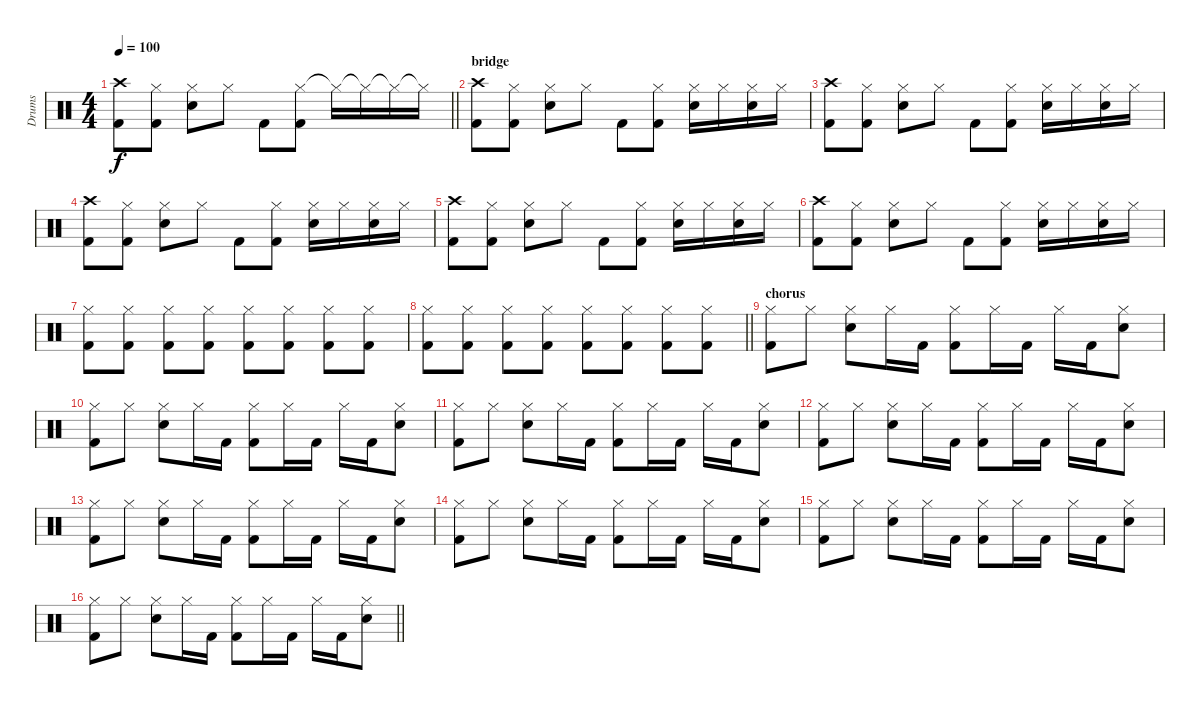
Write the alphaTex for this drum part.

\track ("Drums" "Drums") {instrument percussion}
\staff {score}
\articulation defaults
\ts (4 4)
\tempo 100
\clef neutral
\barLineRight lightlight
\ks c
("Crash high (hit)" "Kick (hit) 2").8{dy f} ("Hi-Hat (closed)" "Kick (hit) 2").8 ("Hi-Hat (closed)" "Snare (hit) 2").8 "Hi-Hat (closed)".8 "Kick (hit) 2".8 ("Hi-Hat (closed)" "Kick (hit) 2").8 "Hi-Hat (closed)"{t}.16 "Hi-Hat (closed)"{t}.16 "Hi-Hat (closed)"{t}.16 "Hi-Hat (closed)"{t}.16 |
\section ("" "bridge")
("Crash high (hit)" "Kick (hit) 2").8 ("Hi-Hat (closed)" "Kick (hit) 2").8 ("Hi-Hat (closed)" "Snare (hit) 2").8 "Hi-Hat (closed)".8 "Kick (hit) 2".8 ("Hi-Hat (closed)" "Kick (hit) 2").8 ("Hi-Hat (closed)" "Snare (hit) 2").16 "Hi-Hat (closed)".16 ("Hi-Hat (closed)" "Snare (hit) 2").16 "Hi-Hat (closed)".16 |
("Crash high (hit)" "Kick (hit) 2").8 ("Hi-Hat (closed)" "Kick (hit) 2").8 ("Hi-Hat (closed)" "Snare (hit) 2").8 "Hi-Hat (closed)".8 "Kick (hit) 2".8 ("Hi-Hat (closed)" "Kick (hit) 2").8 ("Hi-Hat (closed)" "Snare (hit) 2").16 "Hi-Hat (closed)".16 ("Hi-Hat (closed)" "Snare (hit) 2").16 "Hi-Hat (closed)".16 |
("Crash high (hit)" "Kick (hit) 2").8 ("Hi-Hat (closed)" "Kick (hit) 2").8 ("Hi-Hat (closed)" "Snare (hit) 2").8 "Hi-Hat (closed)".8 "Kick (hit) 2".8 ("Hi-Hat (closed)" "Kick (hit) 2").8 ("Hi-Hat (closed)" "Snare (hit) 2").16 "Hi-Hat (closed)".16 ("Hi-Hat (closed)" "Snare (hit) 2").16 "Hi-Hat (closed)".16 |
("Crash high (hit)" "Kick (hit) 2").8 ("Hi-Hat (closed)" "Kick (hit) 2").8 ("Hi-Hat (closed)" "Snare (hit) 2").8 "Hi-Hat (closed)".8 "Kick (hit) 2".8 ("Hi-Hat (closed)" "Kick (hit) 2").8 ("Hi-Hat (closed)" "Snare (hit) 2").16 "Hi-Hat (closed)".16 ("Hi-Hat (closed)" "Snare (hit) 2").16 "Hi-Hat (closed)".16 |
("Crash high (hit)" "Kick (hit) 2").8 ("Hi-Hat (closed)" "Kick (hit) 2").8 ("Hi-Hat (closed)" "Snare (hit) 2").8 "Hi-Hat (closed)".8 "Kick (hit) 2".8 ("Hi-Hat (closed)" "Kick (hit) 2").8 ("Hi-Hat (closed)" "Snare (hit) 2").16 "Hi-Hat (closed)".16 ("Hi-Hat (closed)" "Snare (hit) 2").16 "Hi-Hat (closed)".16 |
("Hi-Hat (closed)" "Kick (hit) 2").8 ("Hi-Hat (closed)" "Kick (hit) 2").8 ("Hi-Hat (closed)" "Kick (hit) 2").8 ("Hi-Hat (closed)" "Kick (hit) 2").8 ("Hi-Hat (closed)" "Kick (hit) 2").8 ("Hi-Hat (closed)" "Kick (hit) 2").8 ("Hi-Hat (closed)" "Kick (hit) 2").8 ("Hi-Hat (closed)" "Kick (hit) 2").8 |
\barLineRight lightlight
("Hi-Hat (closed)" "Kick (hit) 2").8 ("Hi-Hat (closed)" "Kick (hit) 2").8 ("Hi-Hat (closed)" "Kick (hit) 2").8 ("Hi-Hat (closed)" "Kick (hit) 2").8 ("Hi-Hat (closed)" "Kick (hit) 2").8 ("Hi-Hat (closed)" "Kick (hit) 2").8 ("Hi-Hat (closed)" "Kick (hit) 2").8 ("Hi-Hat (closed)" "Kick (hit) 2").8 |
\section ("" "chorus")
("Hi-Hat (closed)" "Kick (hit) 2").8 "Hi-Hat (closed)".8 ("Hi-Hat (closed)" "Snare (hit) 2").8 "Hi-Hat (closed)".16 "Kick (hit) 2".16 ("Hi-Hat (closed)" "Kick (hit) 2").8 "Hi-Hat (closed)".16 "Kick (hit) 2".16 "Hi-Hat (closed)".16 "Kick (hit) 2".16 ("Hi-Hat (closed)" "Snare (hit) 2").8 |
("Hi-Hat (closed)" "Kick (hit) 2").8 "Hi-Hat (closed)".8 ("Hi-Hat (closed)" "Snare (hit) 2").8 "Hi-Hat (closed)".16 "Kick (hit) 2".16 ("Hi-Hat (closed)" "Kick (hit) 2").8 "Hi-Hat (closed)".16 "Kick (hit) 2".16 "Hi-Hat (closed)".16 "Kick (hit) 2".16 ("Hi-Hat (closed)" "Snare (hit) 2").8 |
("Hi-Hat (closed)" "Kick (hit) 2").8 "Hi-Hat (closed)".8 ("Hi-Hat (closed)" "Snare (hit) 2").8 "Hi-Hat (closed)".16 "Kick (hit) 2".16 ("Hi-Hat (closed)" "Kick (hit) 2").8 "Hi-Hat (closed)".16 "Kick (hit) 2".16 "Hi-Hat (closed)".16 "Kick (hit) 2".16 ("Hi-Hat (closed)" "Snare (hit) 2").8 |
("Hi-Hat (closed)" "Kick (hit) 2").8 "Hi-Hat (closed)".8 ("Hi-Hat (closed)" "Snare (hit) 2").8 "Hi-Hat (closed)".16 "Kick (hit) 2".16 ("Hi-Hat (closed)" "Kick (hit) 2").8 "Hi-Hat (closed)".16 "Kick (hit) 2".16 "Hi-Hat (closed)".16 "Kick (hit) 2".16 ("Hi-Hat (closed)" "Snare (hit) 2").8 |
("Hi-Hat (closed)" "Kick (hit) 2").8 "Hi-Hat (closed)".8 ("Hi-Hat (closed)" "Snare (hit) 2").8 "Hi-Hat (closed)".16 "Kick (hit) 2".16 ("Hi-Hat (closed)" "Kick (hit) 2").8 "Hi-Hat (closed)".16 "Kick (hit) 2".16 "Hi-Hat (closed)".16 "Kick (hit) 2".16 ("Hi-Hat (closed)" "Snare (hit) 2").8 |
("Hi-Hat (closed)" "Kick (hit) 2").8 "Hi-Hat (closed)".8 ("Hi-Hat (closed)" "Snare (hit) 2").8 "Hi-Hat (closed)".16 "Kick (hit) 2".16 ("Hi-Hat (closed)" "Kick (hit) 2").8 "Hi-Hat (closed)".16 "Kick (hit) 2".16 "Hi-Hat (closed)".16 "Kick (hit) 2".16 ("Hi-Hat (closed)" "Snare (hit) 2").8 |
("Hi-Hat (closed)" "Kick (hit) 2").8 "Hi-Hat (closed)".8 ("Hi-Hat (closed)" "Snare (hit) 2").8 "Hi-Hat (closed)".16 "Kick (hit) 2".16 ("Hi-Hat (closed)" "Kick (hit) 2").8 "Hi-Hat (closed)".16 "Kick (hit) 2".16 "Hi-Hat (closed)".16 "Kick (hit) 2".16 ("Hi-Hat (closed)" "Snare (hit) 2").8 |
\barLineRight lightlight
("Hi-Hat (closed)" "Kick (hit) 2").8 "Hi-Hat (closed)".8 ("Hi-Hat (closed)" "Snare (hit) 2").8 "Hi-Hat (closed)".16 "Kick (hit) 2".16 ("Hi-Hat (closed)" "Kick (hit) 2").8 "Hi-Hat (closed)".16 "Kick (hit) 2".16 "Hi-Hat (closed)".16 "Kick (hit) 2".16 ("Hi-Hat (closed)" "Snare (hit) 2").8
